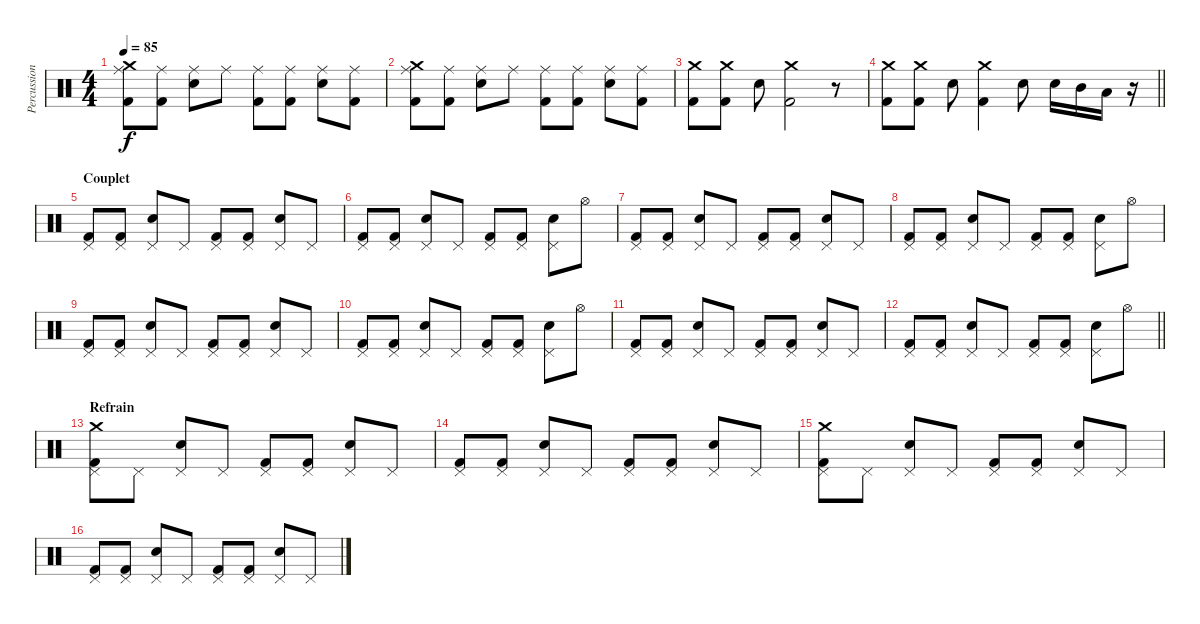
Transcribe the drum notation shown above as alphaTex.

\track ("Percussions" "Percussion") {instrument percussion}
\staff {score}
\articulation defaults
\ts (4 4)
\tempo 85
\clef neutral
\ks c
("Ride (middle)" "Crash medium (hit)" "Kick (hit) 2").8{dy f} ("Ride (middle)" "Kick (hit) 2").8 ("Ride (middle)" "Snare (hit) 2").8 "Ride (middle)".8 ("Ride (middle)" "Kick (hit) 2").8 ("Ride (middle)" "Kick (hit) 2").8 ("Ride (middle)" "Snare (hit) 2").8 ("Ride (middle)" "Kick (hit) 2").8 |
("Ride (middle)" "Crash medium (hit)" "Kick (hit) 2").8 ("Ride (middle)" "Kick (hit) 2").8 ("Ride (middle)" "Snare (hit) 2").8 "Ride (middle)".8 ("Ride (middle)" "Kick (hit) 2").8 ("Ride (middle)" "Kick (hit) 2").8 ("Ride (middle)" "Snare (hit) 2").8 ("Ride (middle)" "Kick (hit) 2").8 |
("Crash medium (hit)" "Kick (hit) 2").8 ("Crash medium (hit)" "Kick (hit) 2").8 "Snare (hit) 2".8 ("Crash medium (hit)" "Kick (hit) 2").2 r.8 |
\barLineRight lightlight
("Crash medium (hit)" "Kick (hit) 2").8 ("Crash medium (hit)" "Kick (hit) 2").8 "Snare (hit) 2".8 ("Crash medium (hit)" "Kick (hit) 2").4 "Snare (hit) 2".8 "Snare (hit) 2".16 "Mid Tom (hit)".16 "Low Tom (hit)".16 r.16 |
\section ("" "Couplet")
("Pedal Hi-Hat (hit)" "Kick (hit) 2").8 ("Pedal Hi-Hat (hit)" "Kick (hit) 2").8 ("Pedal Hi-Hat (hit)" "Snare (hit) 2").8 "Pedal Hi-Hat (hit)".8 ("Pedal Hi-Hat (hit)" "Kick (hit) 2").8 ("Pedal Hi-Hat (hit)" "Kick (hit) 2").8 ("Pedal Hi-Hat (hit)" "Snare (hit) 2").8 "Pedal Hi-Hat (hit)".8 |
("Pedal Hi-Hat (hit)" "Kick (hit) 2").8 ("Pedal Hi-Hat (hit)" "Kick (hit) 2").8 ("Pedal Hi-Hat (hit)" "Snare (hit) 2").8 "Pedal Hi-Hat (hit)".8 ("Pedal Hi-Hat (hit)" "Kick (hit) 2").8 ("Pedal Hi-Hat (hit)" "Kick (hit) 2").8 ("Pedal Hi-Hat (hit)" "Snare (hit) 2").8 "Hi-Hat (open)".8 |
("Pedal Hi-Hat (hit)" "Kick (hit) 2").8 ("Pedal Hi-Hat (hit)" "Kick (hit) 2").8 ("Pedal Hi-Hat (hit)" "Snare (hit) 2").8 "Pedal Hi-Hat (hit)".8 ("Pedal Hi-Hat (hit)" "Kick (hit) 2").8 ("Pedal Hi-Hat (hit)" "Kick (hit) 2").8 ("Pedal Hi-Hat (hit)" "Snare (hit) 2").8 "Pedal Hi-Hat (hit)".8 |
("Pedal Hi-Hat (hit)" "Kick (hit) 2").8 ("Pedal Hi-Hat (hit)" "Kick (hit) 2").8 ("Pedal Hi-Hat (hit)" "Snare (hit) 2").8 "Pedal Hi-Hat (hit)".8 ("Pedal Hi-Hat (hit)" "Kick (hit) 2").8 ("Pedal Hi-Hat (hit)" "Kick (hit) 2").8 ("Pedal Hi-Hat (hit)" "Snare (hit) 2").8 "Hi-Hat (open)".8 |
("Pedal Hi-Hat (hit)" "Kick (hit) 2").8 ("Pedal Hi-Hat (hit)" "Kick (hit) 2").8 ("Pedal Hi-Hat (hit)" "Snare (hit) 2").8 "Pedal Hi-Hat (hit)".8 ("Pedal Hi-Hat (hit)" "Kick (hit) 2").8 ("Pedal Hi-Hat (hit)" "Kick (hit) 2").8 ("Pedal Hi-Hat (hit)" "Snare (hit) 2").8 "Pedal Hi-Hat (hit)".8 |
("Pedal Hi-Hat (hit)" "Kick (hit) 2").8 ("Pedal Hi-Hat (hit)" "Kick (hit) 2").8 ("Pedal Hi-Hat (hit)" "Snare (hit) 2").8 "Pedal Hi-Hat (hit)".8 ("Pedal Hi-Hat (hit)" "Kick (hit) 2").8 ("Pedal Hi-Hat (hit)" "Kick (hit) 2").8 ("Pedal Hi-Hat (hit)" "Snare (hit) 2").8 "Hi-Hat (open)".8 |
("Pedal Hi-Hat (hit)" "Kick (hit) 2").8 ("Pedal Hi-Hat (hit)" "Kick (hit) 2").8 ("Pedal Hi-Hat (hit)" "Snare (hit) 2").8 "Pedal Hi-Hat (hit)".8 ("Pedal Hi-Hat (hit)" "Kick (hit) 2").8 ("Pedal Hi-Hat (hit)" "Kick (hit) 2").8 ("Pedal Hi-Hat (hit)" "Snare (hit) 2").8 "Pedal Hi-Hat (hit)".8 |
\barLineRight lightlight
("Pedal Hi-Hat (hit)" "Kick (hit) 2").8 ("Pedal Hi-Hat (hit)" "Kick (hit) 2").8 ("Pedal Hi-Hat (hit)" "Snare (hit) 2").8 "Pedal Hi-Hat (hit)".8 ("Pedal Hi-Hat (hit)" "Kick (hit) 2").8 ("Pedal Hi-Hat (hit)" "Kick (hit) 2").8 ("Pedal Hi-Hat (hit)" "Snare (hit) 2").8 "Hi-Hat (open)".8 |
\section ("" "Refrain")
("Crash medium (hit)" "Pedal Hi-Hat (hit)" "Kick (hit) 2").8 "Pedal Hi-Hat (hit)".8 ("Pedal Hi-Hat (hit)" "Snare (hit) 2").8 "Pedal Hi-Hat (hit)".8 ("Pedal Hi-Hat (hit)" "Kick (hit) 2").8 ("Pedal Hi-Hat (hit)" "Kick (hit) 2").8 ("Pedal Hi-Hat (hit)" "Snare (hit) 2").8 "Pedal Hi-Hat (hit)".8 |
("Pedal Hi-Hat (hit)" "Kick (hit) 2").8 ("Pedal Hi-Hat (hit)" "Kick (hit) 2").8 ("Pedal Hi-Hat (hit)" "Snare (hit) 2").8 "Pedal Hi-Hat (hit)".8 ("Pedal Hi-Hat (hit)" "Kick (hit) 2").8 ("Pedal Hi-Hat (hit)" "Kick (hit) 2").8 ("Pedal Hi-Hat (hit)" "Snare (hit) 2").8 "Pedal Hi-Hat (hit)".8 |
("Crash medium (hit)" "Pedal Hi-Hat (hit)" "Kick (hit) 2").8 "Pedal Hi-Hat (hit)".8 ("Pedal Hi-Hat (hit)" "Snare (hit) 2").8 "Pedal Hi-Hat (hit)".8 ("Pedal Hi-Hat (hit)" "Kick (hit) 2").8 ("Pedal Hi-Hat (hit)" "Kick (hit) 2").8 ("Pedal Hi-Hat (hit)" "Snare (hit) 2").8 "Pedal Hi-Hat (hit)".8 |
("Pedal Hi-Hat (hit)" "Kick (hit) 2").8 ("Pedal Hi-Hat (hit)" "Kick (hit) 2").8 ("Pedal Hi-Hat (hit)" "Snare (hit) 2").8 "Pedal Hi-Hat (hit)".8 ("Pedal Hi-Hat (hit)" "Kick (hit) 2").8 ("Pedal Hi-Hat (hit)" "Kick (hit) 2").8 ("Pedal Hi-Hat (hit)" "Snare (hit) 2").8 "Pedal Hi-Hat (hit)".8
